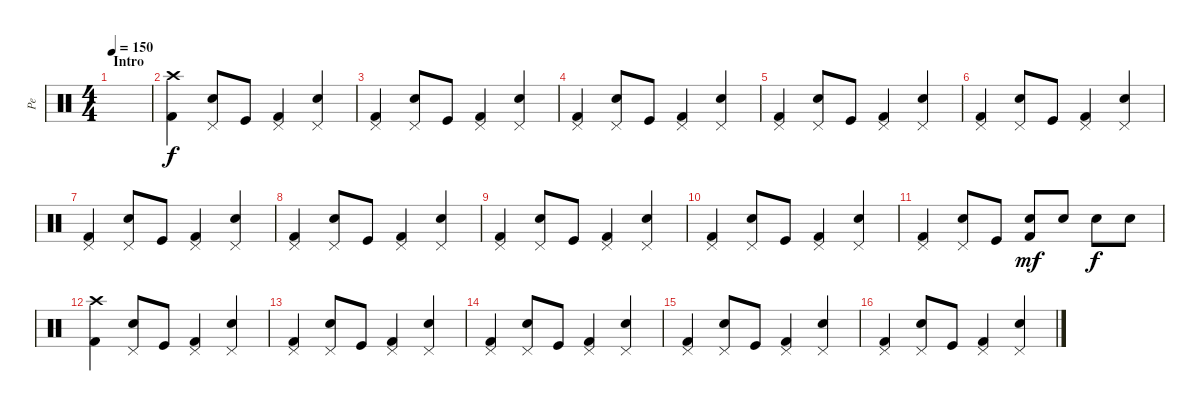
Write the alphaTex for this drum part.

\track ("Pe" "Pe") {instrument percussion}
\staff {score}
\articulation defaults
\ts (4 4)
\section ("" "Intro")
\tempo 150
\clef neutral
\ks c
|
("Kick (hit) 2" "Crash high (hit)").4 ("Electric Snare (hit)" "Pedal Hi-Hat (hit)").8 "Kick (hit)".8 ("Kick (hit) 2" "Pedal Hi-Hat (hit)").4 ("Electric Snare (hit)" "Pedal Hi-Hat (hit)").4 |
("Kick (hit) 2" "Pedal Hi-Hat (hit)").4 ("Electric Snare (hit)" "Pedal Hi-Hat (hit)").8 "Kick (hit)".8 ("Kick (hit) 2" "Pedal Hi-Hat (hit)").4 ("Electric Snare (hit)" "Pedal Hi-Hat (hit)").4 |
("Kick (hit) 2" "Pedal Hi-Hat (hit)").4 ("Electric Snare (hit)" "Pedal Hi-Hat (hit)").8 "Kick (hit)".8 ("Kick (hit) 2" "Pedal Hi-Hat (hit)").4 ("Electric Snare (hit)" "Pedal Hi-Hat (hit)").4 |
("Kick (hit) 2" "Pedal Hi-Hat (hit)").4 ("Electric Snare (hit)" "Pedal Hi-Hat (hit)").8 "Kick (hit)".8 ("Kick (hit) 2" "Pedal Hi-Hat (hit)").4 ("Electric Snare (hit)" "Pedal Hi-Hat (hit)").4 |
("Kick (hit) 2" "Pedal Hi-Hat (hit)").4 ("Electric Snare (hit)" "Pedal Hi-Hat (hit)").8 "Kick (hit)".8 ("Kick (hit) 2" "Pedal Hi-Hat (hit)").4 ("Electric Snare (hit)" "Pedal Hi-Hat (hit)").4 |
("Kick (hit) 2" "Pedal Hi-Hat (hit)").4 ("Electric Snare (hit)" "Pedal Hi-Hat (hit)").8 "Kick (hit)".8 ("Kick (hit) 2" "Pedal Hi-Hat (hit)").4 ("Electric Snare (hit)" "Pedal Hi-Hat (hit)").4 |
("Kick (hit) 2" "Pedal Hi-Hat (hit)").4 ("Electric Snare (hit)" "Pedal Hi-Hat (hit)").8 "Kick (hit)".8 ("Kick (hit) 2" "Pedal Hi-Hat (hit)").4 ("Electric Snare (hit)" "Pedal Hi-Hat (hit)").4 |
("Kick (hit) 2" "Pedal Hi-Hat (hit)").4 ("Electric Snare (hit)" "Pedal Hi-Hat (hit)").8 "Kick (hit)".8 ("Kick (hit) 2" "Pedal Hi-Hat (hit)").4 ("Electric Snare (hit)" "Pedal Hi-Hat (hit)").4 |
("Kick (hit) 2" "Pedal Hi-Hat (hit)").4 ("Electric Snare (hit)" "Pedal Hi-Hat (hit)").8 "Kick (hit)".8 ("Kick (hit) 2" "Pedal Hi-Hat (hit)").4 ("Electric Snare (hit)" "Pedal Hi-Hat (hit)").4 |
("Kick (hit) 2" "Pedal Hi-Hat (hit)").4 ("Electric Snare (hit)" "Pedal Hi-Hat (hit)").8 "Kick (hit)".8 ("Kick (hit) 2" "Electric Snare (hit)").8{dy mf} "Electric Snare (hit)".8 "Electric Snare (hit)".8{dy f} "Electric Snare (hit)".8 |
("Kick (hit) 2" "Crash high (hit)").4 ("Electric Snare (hit)" "Pedal Hi-Hat (hit)").8 "Kick (hit)".8 ("Kick (hit) 2" "Pedal Hi-Hat (hit)").4 ("Electric Snare (hit)" "Pedal Hi-Hat (hit)").4 |
("Kick (hit) 2" "Pedal Hi-Hat (hit)").4 ("Electric Snare (hit)" "Pedal Hi-Hat (hit)").8 "Kick (hit)".8 ("Kick (hit) 2" "Pedal Hi-Hat (hit)").4 ("Electric Snare (hit)" "Pedal Hi-Hat (hit)").4 |
("Kick (hit) 2" "Pedal Hi-Hat (hit)").4 ("Electric Snare (hit)" "Pedal Hi-Hat (hit)").8 "Kick (hit)".8 ("Kick (hit) 2" "Pedal Hi-Hat (hit)").4 ("Electric Snare (hit)" "Pedal Hi-Hat (hit)").4 |
("Kick (hit) 2" "Pedal Hi-Hat (hit)").4 ("Electric Snare (hit)" "Pedal Hi-Hat (hit)").8 "Kick (hit)".8 ("Kick (hit) 2" "Pedal Hi-Hat (hit)").4 ("Electric Snare (hit)" "Pedal Hi-Hat (hit)").4 |
("Kick (hit) 2" "Pedal Hi-Hat (hit)").4 ("Electric Snare (hit)" "Pedal Hi-Hat (hit)").8 "Kick (hit)".8 ("Kick (hit) 2" "Pedal Hi-Hat (hit)").4 ("Electric Snare (hit)" "Pedal Hi-Hat (hit)").4
